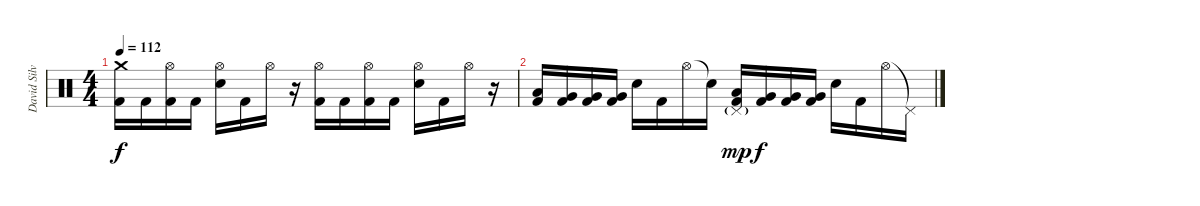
\track ("David Silveria" "David Silv") {instrument percussion}
\staff {score}
\articulation defaults
\ts (4 4)
\tempo 112
\clef neutral
\ks c
("Crash medium (hit)" "Kick (hit) 2").16{dy f} "Kick (hit) 2".16 ("Hi-Hat (open)" "Kick (hit) 2").16 "Kick (hit) 2".16 ("Hi-Hat (open)" "Electric Snare (hit)").16 "Kick (hit) 2".16 "Hi-Hat (open)".16 r.16 ("Hi-Hat (open)" "Kick (hit) 2").16 "Kick (hit) 2".16 ("Hi-Hat (open)" "Kick (hit) 2").16 "Kick (hit) 2".16 ("Hi-Hat (open)" "Electric Snare (hit)").16 "Kick (hit) 2".16 "Hi-Hat (open)".16 r.16 |
("Low Tom (hit)" "Kick (hit) 2").16 ("Very Low Tom (hit)" "Kick (hit) 2").16 ("Very Low Tom (hit)" "Kick (hit) 2").16 ("Very Low Tom (hit)" "Kick (hit) 2").16 "Electric Snare (hit)".16 "Kick (hit) 2".16 "Hi-Hat (open)".16 "Snare (hit)"{t}.16 ("Pedal Hi-Hat (hit)"{g} "Low Tom (hit)" "Kick (hit) 2").16{dy mp} ("Very Low Tom (hit)" "Kick (hit) 2").16{dy f} ("Very Low Tom (hit)" "Kick (hit) 2").16 ("Very Low Tom (hit)" "Kick (hit) 2").16 "Electric Snare (hit)".16 "Kick (hit) 2".16 "Hi-Hat (open)".16 "Pedal Hi-Hat (hit)"{t}.16
